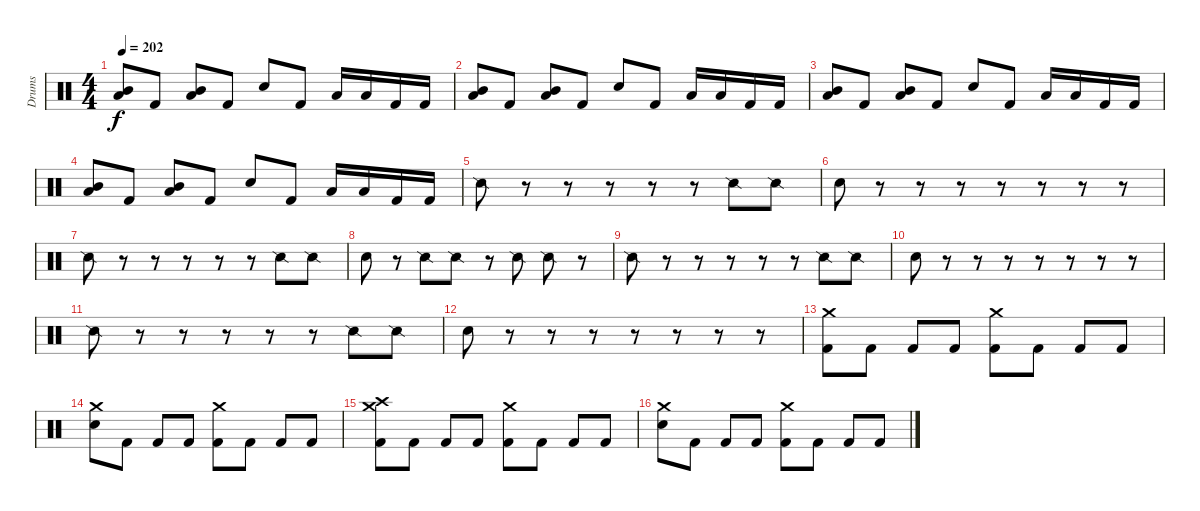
\track ("Drums" "Drums") {instrument percussion}
\staff {score}
\articulation defaults
\ts (4 4)
\tempo 202
\clef neutral
\ks c
("Mid Tom (hit)" "Low Tom (hit)").8{dy f} "Kick (hit) 2".8 ("Mid Tom (hit)" "Low Tom (hit)").8 "Kick (hit) 2".8 "Electric Snare (hit)".8 "Kick (hit) 2".8 "Low Tom (hit)".16 "Low Tom (hit)".16 "Kick (hit) 2".16 "Kick (hit) 2".16 |
("Mid Tom (hit)" "Low Tom (hit)").8 "Kick (hit) 2".8 ("Mid Tom (hit)" "Low Tom (hit)").8 "Kick (hit) 2".8 "Electric Snare (hit)".8 "Kick (hit) 2".8 "Low Tom (hit)".16 "Low Tom (hit)".16 "Kick (hit) 2".16 "Kick (hit) 2".16 |
("Mid Tom (hit)" "Low Tom (hit)").8 "Kick (hit) 2".8 ("Mid Tom (hit)" "Low Tom (hit)").8 "Kick (hit) 2".8 "Electric Snare (hit)".8 "Kick (hit) 2".8 "Low Tom (hit)".16 "Low Tom (hit)".16 "Kick (hit) 2".16 "Kick (hit) 2".16 |
("Mid Tom (hit)" "Low Tom (hit)").8 "Kick (hit) 2".8 ("Mid Tom (hit)" "Low Tom (hit)").8 "Kick (hit) 2".8 "Electric Snare (hit)".8 "Kick (hit) 2".8 "Low Tom (hit)".16 "Low Tom (hit)".16 "Kick (hit) 2".16 "Kick (hit) 2".16 |
"Snare (side stick) 2".8 r.8 r.8 r.8 r.8 r.8 "Snare (side stick) 2".8 "Snare (side stick) 2".8 |
"Hand Clap (hit)".8 r.8 r.8 r.8 r.8 r.8 r.8 r.8 |
"Snare (side stick) 2".8 r.8 r.8 r.8 r.8 r.8 "Snare (side stick) 2".8 "Snare (side stick) 2".8 |
"Hand Clap (hit)".8 r.8 "Snare (side stick) 2".8 "Snare (side stick) 2".8 r.8 "Snare (side stick) 2".8 "Snare (side stick) 2".8 r.8 |
"Snare (side stick) 2".8 r.8 r.8 r.8 r.8 r.8 "Snare (side stick) 2".8 "Snare (side stick) 2".8 |
"Hand Clap (hit)".8 r.8 r.8 r.8 r.8 r.8 r.8 r.8 |
"Snare (side stick) 2".8 r.8 r.8 r.8 r.8 r.8 "Snare (side stick) 2".8 "Snare (side stick) 2".8 |
"Hand Clap (hit)".8 r.8 r.8 r.8 r.8 r.8 r.8 r.8 |
("Crash medium (hit)" "Kick (hit) 2").8 "Kick (hit) 2".8 "Kick (hit) 2".8 "Kick (hit) 2".8 ("Crash medium (hit)" "Kick (hit) 2").8 "Kick (hit) 2".8 "Kick (hit) 2".8 "Kick (hit) 2".8 |
("Crash medium (hit)" "Electric Snare (hit)").8 "Kick (hit) 2".8 "Kick (hit) 2".8 "Kick (hit) 2".8 ("Crash medium (hit)" "Kick (hit) 2").8 "Kick (hit) 2".8 "Kick (hit) 2".8 "Kick (hit) 2".8 |
("Crash medium (hit)" "Crash high (hit)" "Kick (hit) 2").8 "Kick (hit) 2".8 "Kick (hit) 2".8 "Kick (hit) 2".8 ("Crash medium (hit)" "Kick (hit) 2").8 "Kick (hit) 2".8 "Kick (hit) 2".8 "Kick (hit) 2".8 |
("Crash medium (hit)" "Electric Snare (hit)").8 "Kick (hit) 2".8 "Kick (hit) 2".8 "Kick (hit) 2".8 ("Crash medium (hit)" "Kick (hit) 2").8 "Kick (hit) 2".8 "Kick (hit) 2".8 "Kick (hit) 2".8
